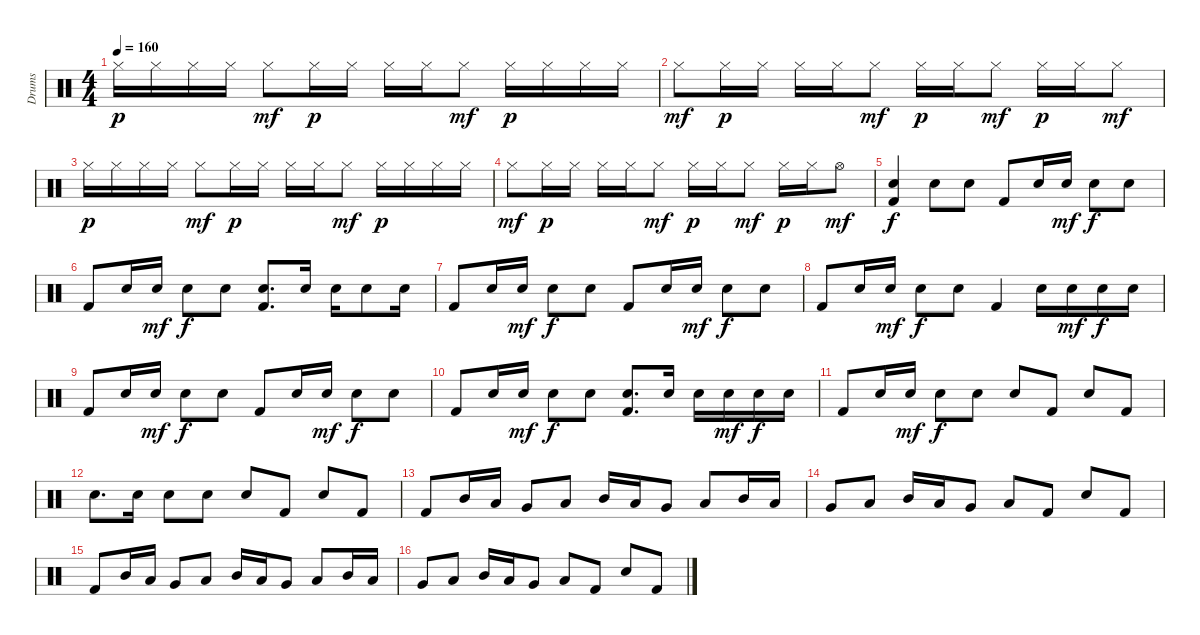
\track ("Drums" "Drums") {instrument percussion}
\staff {score}
\articulation defaults
\ts (4 4)
\tempo 160
\clef neutral
\ks c "Hi-Hat (closed)".16{dy p} "Hi-Hat (closed)".16 "Hi-Hat (closed)".16 "Hi-Hat (closed)".16 "Hi-Hat (closed)".8{dy mf} "Hi-Hat (closed)".16{dy p} "Hi-Hat (closed)".16 "Hi-Hat (closed)".16 "Hi-Hat (closed)".16 "Hi-Hat (closed)".8{dy mf} "Hi-Hat (closed)".16{dy p} "Hi-Hat (closed)".16 "Hi-Hat (closed)".16 "Hi-Hat (closed)".16
|
"Hi-Hat (closed)".8{dy mf} "Hi-Hat (closed)".16{dy p} "Hi-Hat (closed)".16 "Hi-Hat (closed)".16 "Hi-Hat (closed)".16 "Hi-Hat (closed)".8{dy mf} "Hi-Hat (closed)".16{dy p} "Hi-Hat (closed)".16 "Hi-Hat (closed)".8{dy mf} "Hi-Hat (closed)".16{dy p} "Hi-Hat (closed)".16 "Hi-Hat (closed)".8{dy mf} |
"Hi-Hat (closed)".16{dy p} "Hi-Hat (closed)".16 "Hi-Hat (closed)".16 "Hi-Hat (closed)".16 "Hi-Hat (closed)".8{dy mf} "Hi-Hat (closed)".16{dy p} "Hi-Hat (closed)".16 "Hi-Hat (closed)".16 "Hi-Hat (closed)".16 "Hi-Hat (closed)".8{dy mf} "Hi-Hat (closed)".16{dy p} "Hi-Hat (closed)".16 "Hi-Hat (closed)".16 "Hi-Hat (closed)".16 |
"Hi-Hat (closed)".8{dy mf} "Hi-Hat (closed)".16{dy p} "Hi-Hat (closed)".16 "Hi-Hat (closed)".16 "Hi-Hat (closed)".16 "Hi-Hat (closed)".8{dy mf} "Hi-Hat (closed)".16{dy p} "Hi-Hat (closed)".16 "Hi-Hat (closed)".8{dy mf} "Hi-Hat (closed)".16{dy p} "Hi-Hat (closed)".16 "Hi-Hat (open)".8{dy mf} |
("Kick (hit) 2" "Electric Snare (hit)").4{dy f} "Electric Snare (hit)".8 "Electric Snare (hit)".8 "Kick (hit) 2".8 "Electric Snare (hit)".16 "Electric Snare (hit)".16{dy mf} "Electric Snare (hit)".8{dy f} "Electric Snare (hit)".8 |
"Kick (hit) 2".8 "Electric Snare (hit)".16 "Electric Snare (hit)".16{dy mf} "Electric Snare (hit)".8{dy f} "Electric Snare (hit)".8 ("Kick (hit) 2" "Electric Snare (hit)").8{d} "Electric Snare (hit)".16 "Electric Snare (hit)".16 "Electric Snare (hit)".8 "Electric Snare (hit)".16 |
"Kick (hit) 2".8 "Electric Snare (hit)".16 "Electric Snare (hit)".16{dy mf} "Electric Snare (hit)".8{dy f} "Electric Snare (hit)".8 "Kick (hit) 2".8 "Electric Snare (hit)".16 "Electric Snare (hit)".16{dy mf} "Electric Snare (hit)".8{dy f} "Electric Snare (hit)".8 |
"Kick (hit) 2".8 "Electric Snare (hit)".16 "Electric Snare (hit)".16{dy mf} "Electric Snare (hit)".8{dy f} "Electric Snare (hit)".8 "Kick (hit) 2".4 "Electric Snare (hit)".16 "Electric Snare (hit)".16{dy mf} "Electric Snare (hit)".16{dy f} "Electric Snare (hit)".16 |
"Kick (hit) 2".8 "Electric Snare (hit)".16 "Electric Snare (hit)".16{dy mf} "Electric Snare (hit)".8{dy f} "Electric Snare (hit)".8 "Kick (hit) 2".8 "Electric Snare (hit)".16 "Electric Snare (hit)".16{dy mf} "Electric Snare (hit)".8{dy f} "Electric Snare (hit)".8 |
"Kick (hit) 2".8 "Electric Snare (hit)".16 "Electric Snare (hit)".16{dy mf} "Electric Snare (hit)".8{dy f} "Electric Snare (hit)".8 ("Kick (hit) 2" "Electric Snare (hit)").8{d} "Electric Snare (hit)".16 "Electric Snare (hit)".16 "Electric Snare (hit)".16{dy mf} "Electric Snare (hit)".16{dy f} "Electric Snare (hit)".16 |
"Kick (hit) 2".8 "Electric Snare (hit)".16 "Electric Snare (hit)".16{dy mf} "Electric Snare (hit)".8{dy f} "Electric Snare (hit)".8 "Electric Snare (hit)".8 "Kick (hit) 2".8 "Electric Snare (hit)".8 "Kick (hit) 2".8 |
"Electric Snare (hit)".8{d} "Electric Snare (hit)".16 "Electric Snare (hit)".8 "Electric Snare (hit)".8 "Electric Snare (hit)".8 "Kick (hit) 2".8 "Electric Snare (hit)".8 "Kick (hit) 2".8 |
"Kick (hit) 2".8 "Mid Tom (hit)".16 "Low Tom (hit)".16 "Very Low Tom (hit)".8 "Low Floor Tom (hit)".8 "Mid Tom (hit)".16 "Low Tom (hit)".16 "Very Low Tom (hit)".8 "Low Floor Tom (hit)".8 "Mid Tom (hit)".16 "Low Tom (hit)".16 |
"Very Low Tom (hit)".8 "Low Floor Tom (hit)".8 "Mid Tom (hit)".16 "Low Tom (hit)".16 "Very Low Tom (hit)".8 "Low Floor Tom (hit)".8 "Kick (hit) 2".8 "Electric Snare (hit)".8 "Kick (hit) 2".8 |
"Kick (hit) 2".8 "Mid Tom (hit)".16 "Low Tom (hit)".16 "Very Low Tom (hit)".8 "Low Floor Tom (hit)".8 "Mid Tom (hit)".16 "Low Tom (hit)".16 "Very Low Tom (hit)".8 "Low Floor Tom (hit)".8 "Mid Tom (hit)".16 "Low Tom (hit)".16 |
"Very Low Tom (hit)".8 "Low Floor Tom (hit)".8 "Mid Tom (hit)".16 "Low Tom (hit)".16 "Very Low Tom (hit)".8 "Low Floor Tom (hit)".8 "Kick (hit) 2".8 "Electric Snare (hit)".8 "Kick (hit) 2".8
